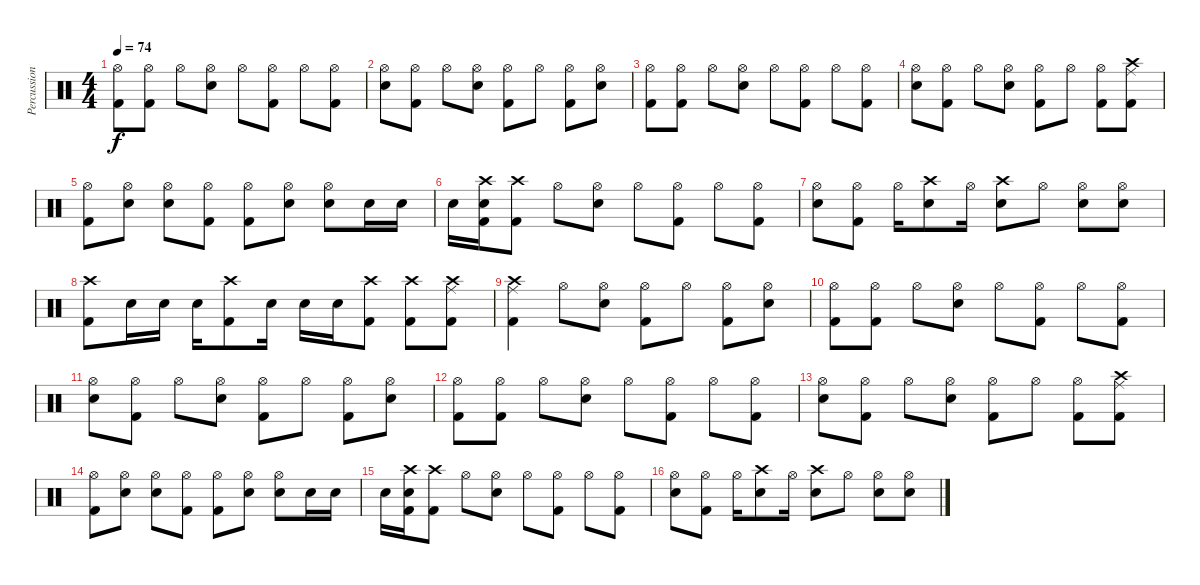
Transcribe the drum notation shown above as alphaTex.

\track ("Percussion" "Percussion") {instrument percussion}
\staff {score}
\articulation defaults
\ts (4 4)
\tempo 74
\clef neutral
\ks c
("Hi-Hat (open)" "Kick (hit) 2").8{dy f} ("Hi-Hat (open)" "Kick (hit) 2").8 "Hi-Hat (open)".8 ("Hi-Hat (open)" "Snare (hit) 2").8 "Hi-Hat (open)".8 ("Hi-Hat (open)" "Kick (hit) 2").8 "Hi-Hat (open)".8 ("Hi-Hat (open)" "Kick (hit) 2").8 |
("Hi-Hat (open)" "Snare (hit) 2").8 ("Hi-Hat (open)" "Kick (hit) 2").8 "Hi-Hat (open)".8 ("Hi-Hat (open)" "Snare (hit) 2").8 ("Hi-Hat (open)" "Kick (hit) 2").8 "Hi-Hat (open)".8 ("Hi-Hat (open)" "Kick (hit) 2").8 ("Hi-Hat (open)" "Snare (hit) 2").8 |
("Hi-Hat (open)" "Kick (hit) 2").8 ("Hi-Hat (open)" "Kick (hit) 2").8 "Hi-Hat (open)".8 ("Hi-Hat (open)" "Snare (hit) 2").8 "Hi-Hat (open)".8 ("Hi-Hat (open)" "Kick (hit) 2").8 "Hi-Hat (open)".8 ("Hi-Hat (open)" "Kick (hit) 2").8 |
("Hi-Hat (open)" "Snare (hit) 2").8 ("Hi-Hat (open)" "Kick (hit) 2").8 "Hi-Hat (open)".8 ("Hi-Hat (open)" "Snare (hit) 2").8 ("Hi-Hat (open)" "Kick (hit) 2").8 "Hi-Hat (open)".8 ("Hi-Hat (open)" "Kick (hit) 2").8 ("Crash high (hit)" "Kick (hit) 2" "Ride (middle)").8 |
("Hi-Hat (open)" "Kick (hit) 2").8 ("Hi-Hat (open)" "Snare (hit) 2").8 ("Hi-Hat (open)" "Snare (hit) 2").8 ("Hi-Hat (open)" "Kick (hit) 2").8 ("Hi-Hat (open)" "Kick (hit) 2").8 ("Hi-Hat (open)" "Snare (hit) 2").8 ("Hi-Hat (open)" "Snare (hit) 2").8 "Snare (hit) 2".16 "Snare (hit) 2".16 |
"Snare (hit) 2".16 ("Crash high (hit)" "Kick (hit) 2" "Snare (hit) 2").16 ("Crash high (hit)" "Kick (hit) 2").8 "Hi-Hat (open)".8 ("Hi-Hat (open)" "Snare (hit) 2").8 "Hi-Hat (open)".8 ("Hi-Hat (open)" "Kick (hit) 2").8 "Hi-Hat (open)".8 ("Hi-Hat (open)" "Kick (hit) 2").8 |
("Hi-Hat (open)" "Snare (hit) 2").8 ("Hi-Hat (open)" "Kick (hit) 2").8 "Hi-Hat (open)".16 ("Crash high (hit)" "Snare (hit) 2").8 "Hi-Hat (open)".16 ("Crash high (hit)" "Snare (hit) 2").8 "Hi-Hat (open)".8 ("Hi-Hat (open)" "Snare (hit) 2").8 ("Hi-Hat (open)" "Snare (hit) 2").8 |
("Crash high (hit)" "Kick (hit) 2").8 "Snare (hit) 2".16 "Snare (hit) 2".16 "Snare (hit) 2".16 ("Crash high (hit)" "Kick (hit) 2").8 "Snare (hit) 2".16 "Snare (hit) 2".16 "Snare (hit) 2".16 ("Crash high (hit)" "Kick (hit) 2").8 ("Crash high (hit)" "Kick (hit) 2").8 ("Ride (middle)" "Crash high (hit)" "Kick (hit) 2").8 |
("Ride (middle)" "Crash high (hit)" "Kick (hit) 2").4 "Hi-Hat (open)".8 ("Hi-Hat (open)" "Snare (hit) 2").8 ("Hi-Hat (open)" "Kick (hit) 2").8 "Hi-Hat (open)".8 ("Hi-Hat (open)" "Kick (hit) 2").8 ("Hi-Hat (open)" "Snare (hit) 2").8 |
("Hi-Hat (open)" "Kick (hit) 2").8 ("Hi-Hat (open)" "Kick (hit) 2").8 "Hi-Hat (open)".8 ("Hi-Hat (open)" "Snare (hit) 2").8 "Hi-Hat (open)".8 ("Hi-Hat (open)" "Kick (hit) 2").8 "Hi-Hat (open)".8 ("Hi-Hat (open)" "Kick (hit) 2").8 |
("Hi-Hat (open)" "Snare (hit) 2").8 ("Hi-Hat (open)" "Kick (hit) 2").8 "Hi-Hat (open)".8 ("Hi-Hat (open)" "Snare (hit) 2").8 ("Hi-Hat (open)" "Kick (hit) 2").8 "Hi-Hat (open)".8 ("Hi-Hat (open)" "Kick (hit) 2").8 ("Hi-Hat (open)" "Snare (hit) 2").8 |
("Hi-Hat (open)" "Kick (hit) 2").8 ("Hi-Hat (open)" "Kick (hit) 2").8 "Hi-Hat (open)".8 ("Hi-Hat (open)" "Snare (hit) 2").8 "Hi-Hat (open)".8 ("Hi-Hat (open)" "Kick (hit) 2").8 "Hi-Hat (open)".8 ("Hi-Hat (open)" "Kick (hit) 2").8 |
("Hi-Hat (open)" "Snare (hit) 2").8 ("Hi-Hat (open)" "Kick (hit) 2").8 "Hi-Hat (open)".8 ("Hi-Hat (open)" "Snare (hit) 2").8 ("Hi-Hat (open)" "Kick (hit) 2").8 "Hi-Hat (open)".8 ("Hi-Hat (open)" "Kick (hit) 2").8 ("Crash high (hit)" "Kick (hit) 2" "Ride (middle)").8 |
("Hi-Hat (open)" "Kick (hit) 2").8 ("Hi-Hat (open)" "Snare (hit) 2").8 ("Hi-Hat (open)" "Snare (hit) 2").8 ("Hi-Hat (open)" "Kick (hit) 2").8 ("Hi-Hat (open)" "Kick (hit) 2").8 ("Hi-Hat (open)" "Snare (hit) 2").8 ("Hi-Hat (open)" "Snare (hit) 2").8 "Snare (hit) 2".16 "Snare (hit) 2".16 |
"Snare (hit) 2".16 ("Crash high (hit)" "Kick (hit) 2" "Snare (hit) 2").16 ("Crash high (hit)" "Kick (hit) 2").8 "Hi-Hat (open)".8 ("Hi-Hat (open)" "Snare (hit) 2").8 "Hi-Hat (open)".8 ("Hi-Hat (open)" "Kick (hit) 2").8 "Hi-Hat (open)".8 ("Hi-Hat (open)" "Kick (hit) 2").8 |
("Hi-Hat (open)" "Snare (hit) 2").8 ("Hi-Hat (open)" "Kick (hit) 2").8 "Hi-Hat (open)".16 ("Crash high (hit)" "Snare (hit) 2").8 "Hi-Hat (open)".16 ("Crash high (hit)" "Snare (hit) 2").8 "Hi-Hat (open)".8 ("Hi-Hat (open)" "Snare (hit) 2").8 ("Hi-Hat (open)" "Snare (hit) 2").8
